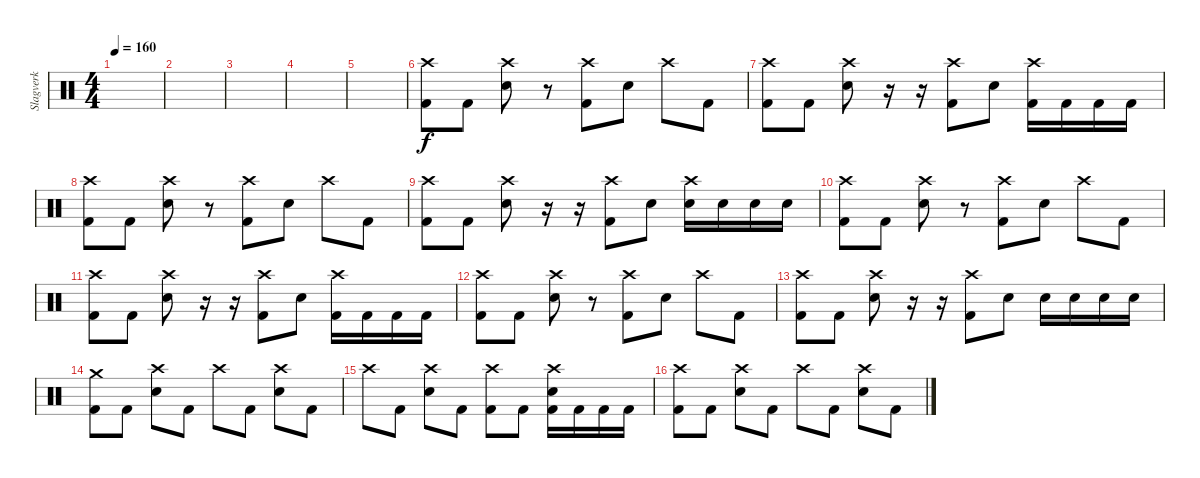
\track ("Slagverk" "Slagverk") {instrument percussion}
\staff {score}
\articulation defaults
\ts (4 4)
\tempo 160
\clef neutral
\ks c
|
|
|
|
|
("Crash high (hit)" "Kick (hit) 2").8 "Kick (hit) 2".8 ("Crash high (hit)" "Snare (hit) 2").8 r.8 ("Crash high (hit)" "Kick (hit) 2").8 "Snare (hit) 2".8 "Crash high (hit)".8 "Kick (hit) 2".8 |
("Crash high (hit)" "Kick (hit) 2").8 "Kick (hit) 2".8 ("Crash high (hit)" "Snare (hit) 2").8 r.16 r.16 ("Crash high (hit)" "Kick (hit) 2").8 "Snare (hit) 2".8 ("Crash high (hit)" "Kick (hit) 2").16 "Kick (hit) 2".16 "Kick (hit) 2".16 "Kick (hit) 2".16 |
("Crash high (hit)" "Kick (hit) 2").8 "Kick (hit) 2".8 ("Crash high (hit)" "Snare (hit) 2").8 r.8 ("Crash high (hit)" "Kick (hit) 2").8 "Snare (hit) 2".8 "Crash high (hit)".8 "Kick (hit) 2".8 |
("Crash high (hit)" "Kick (hit) 2").8 "Kick (hit) 2".8 ("Crash high (hit)" "Snare (hit) 2").8 r.16 r.16 ("Crash high (hit)" "Kick (hit) 2").8 "Snare (hit) 2".8 ("Crash high (hit)" "Snare (hit) 2").16 "Snare (hit) 2".16 "Snare (hit) 2".16 "Snare (hit) 2".16 |
("Crash high (hit)" "Kick (hit) 2").8 "Kick (hit) 2".8 ("Crash high (hit)" "Snare (hit) 2").8 r.8 ("Crash high (hit)" "Kick (hit) 2").8 "Snare (hit) 2".8 "Crash high (hit)".8 "Kick (hit) 2".8 |
("Crash high (hit)" "Kick (hit) 2").8 "Kick (hit) 2".8 ("Crash high (hit)" "Snare (hit) 2").8 r.16 r.16 ("Crash high (hit)" "Kick (hit) 2").8 "Snare (hit) 2".8 ("Crash high (hit)" "Kick (hit) 2").16 "Kick (hit) 2".16 "Kick (hit) 2".16 "Kick (hit) 2".16 |
("Crash high (hit)" "Kick (hit) 2").8 "Kick (hit) 2".8 ("Crash high (hit)" "Snare (hit) 2").8 r.8 ("Crash high (hit)" "Kick (hit) 2").8 "Snare (hit) 2".8 "Crash high (hit)".8 "Kick (hit) 2".8 |
("Crash high (hit)" "Kick (hit) 2").8 "Kick (hit) 2".8 ("Crash high (hit)" "Snare (hit) 2").8 r.16 r.16 ("Crash high (hit)" "Kick (hit) 2").8 "Snare (hit) 2".8 "Snare (hit) 2".16 "Snare (hit) 2".16 "Snare (hit) 2".16 "Snare (hit) 2".16 |
("Crash medium (hit)" "Kick (hit) 2").8 "Kick (hit) 2".8 ("Crash high (hit)" "Snare (hit) 2").8 "Kick (hit) 2".8 "Crash high (hit)".8 "Kick (hit) 2".8 ("Crash high (hit)" "Snare (hit) 2").8 "Kick (hit) 2".8 |
"Crash high (hit)".8 "Kick (hit) 2".8 ("Crash high (hit)" "Snare (hit) 2").8 "Kick (hit) 2".8 ("Crash high (hit)" "Kick (hit) 2").8 "Kick (hit) 2".8 ("Crash high (hit)" "Snare (hit) 2" "Kick (hit) 2").16 "Kick (hit) 2".16 "Kick (hit) 2".16 "Kick (hit) 2".16 |
("Crash high (hit)" "Kick (hit) 2").8 "Kick (hit) 2".8 ("Crash high (hit)" "Snare (hit) 2").8 "Kick (hit) 2".8 "Crash high (hit)".8 "Kick (hit) 2".8 ("Crash high (hit)" "Snare (hit) 2").8 "Kick (hit) 2".8
